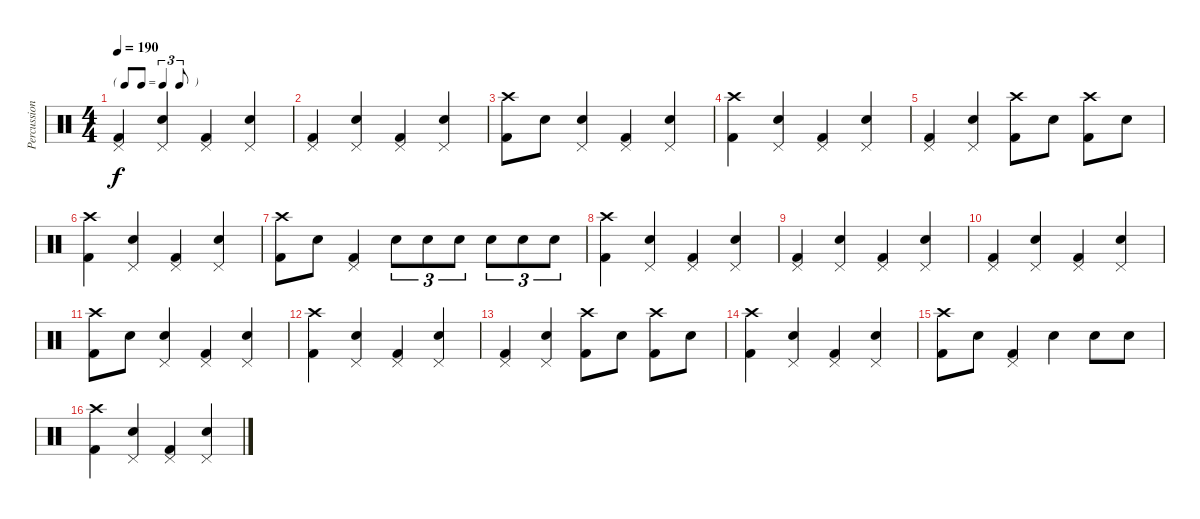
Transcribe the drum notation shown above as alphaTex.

\track ("Percussion" "Percussion") {instrument percussion}
\staff {score}
\articulation defaults
\ts (4 4)
\tf triplet8th
\tempo 190
\clef neutral
\ks c
("Pedal Hi-Hat (hit)" "Kick (hit) 2").4{dy f} ("Pedal Hi-Hat (hit)" "Electric Snare (hit)").4 ("Pedal Hi-Hat (hit)" "Kick (hit) 2").4 ("Pedal Hi-Hat (hit)" "Electric Snare (hit)").4 |
("Pedal Hi-Hat (hit)" "Kick (hit) 2").4 ("Pedal Hi-Hat (hit)" "Electric Snare (hit)").4 ("Pedal Hi-Hat (hit)" "Kick (hit) 2").4 ("Pedal Hi-Hat (hit)" "Electric Snare (hit)").4 |
("Crash high (hit)" "Kick (hit) 2").8 "Electric Snare (hit)".8 ("Pedal Hi-Hat (hit)" "Electric Snare (hit)").4 ("Pedal Hi-Hat (hit)" "Kick (hit) 2").4 ("Pedal Hi-Hat (hit)" "Electric Snare (hit)").4 |
("Crash high (hit)" "Kick (hit) 2").4 ("Pedal Hi-Hat (hit)" "Electric Snare (hit)").4 ("Pedal Hi-Hat (hit)" "Kick (hit) 2").4 ("Pedal Hi-Hat (hit)" "Electric Snare (hit)").4 |
("Pedal Hi-Hat (hit)" "Kick (hit) 2").4 ("Pedal Hi-Hat (hit)" "Electric Snare (hit)").4 ("Crash high (hit)" "Kick (hit) 2").8 "Electric Snare (hit)".8 ("Crash high (hit)" "Kick (hit) 2").8 "Electric Snare (hit)".8 |
("Crash high (hit)" "Kick (hit) 2").4 ("Pedal Hi-Hat (hit)" "Electric Snare (hit)").4 ("Pedal Hi-Hat (hit)" "Kick (hit) 2").4 ("Pedal Hi-Hat (hit)" "Electric Snare (hit)").4 |
("Crash high (hit)" "Kick (hit) 2").8 "Electric Snare (hit)".8 ("Pedal Hi-Hat (hit)" "Kick (hit) 2").4 "Electric Snare (hit)".8{tu (3 2)} "Electric Snare (hit)".8{tu (3 2)} "Electric Snare (hit)".8{tu (3 2)} "Electric Snare (hit)".8{tu (3 2)} "Electric Snare (hit)".8{tu (3 2)} "Electric Snare (hit)".8{tu (3 2)} |
("Crash high (hit)" "Kick (hit) 2").4 ("Pedal Hi-Hat (hit)" "Electric Snare (hit)").4 ("Pedal Hi-Hat (hit)" "Kick (hit) 2").4 ("Pedal Hi-Hat (hit)" "Electric Snare (hit)").4 |
("Pedal Hi-Hat (hit)" "Kick (hit) 2").4 ("Pedal Hi-Hat (hit)" "Electric Snare (hit)").4 ("Pedal Hi-Hat (hit)" "Kick (hit) 2").4 ("Pedal Hi-Hat (hit)" "Electric Snare (hit)").4 |
("Pedal Hi-Hat (hit)" "Kick (hit) 2").4 ("Pedal Hi-Hat (hit)" "Electric Snare (hit)").4 ("Pedal Hi-Hat (hit)" "Kick (hit) 2").4 ("Pedal Hi-Hat (hit)" "Electric Snare (hit)").4 |
("Crash high (hit)" "Kick (hit) 2").8 "Electric Snare (hit)".8 ("Pedal Hi-Hat (hit)" "Electric Snare (hit)").4 ("Pedal Hi-Hat (hit)" "Kick (hit) 2").4 ("Pedal Hi-Hat (hit)" "Electric Snare (hit)").4 |
("Crash high (hit)" "Kick (hit) 2").4 ("Pedal Hi-Hat (hit)" "Electric Snare (hit)").4 ("Pedal Hi-Hat (hit)" "Kick (hit) 2").4 ("Pedal Hi-Hat (hit)" "Electric Snare (hit)").4 |
("Pedal Hi-Hat (hit)" "Kick (hit) 2").4 ("Pedal Hi-Hat (hit)" "Electric Snare (hit)").4 ("Crash high (hit)" "Kick (hit) 2").8 "Electric Snare (hit)".8 ("Crash high (hit)" "Kick (hit) 2").8 "Electric Snare (hit)".8 |
("Crash high (hit)" "Kick (hit) 2").4 ("Pedal Hi-Hat (hit)" "Electric Snare (hit)").4 ("Pedal Hi-Hat (hit)" "Kick (hit) 2").4 ("Pedal Hi-Hat (hit)" "Electric Snare (hit)").4 |
("Crash high (hit)" "Kick (hit) 2").8 "Electric Snare (hit)".8 ("Pedal Hi-Hat (hit)" "Kick (hit) 2").4 "Electric Snare (hit)".4 "Electric Snare (hit)".8 "Electric Snare (hit)".8 |
("Crash high (hit)" "Kick (hit) 2").4 ("Pedal Hi-Hat (hit)" "Electric Snare (hit)").4 ("Pedal Hi-Hat (hit)" "Kick (hit) 2").4 ("Pedal Hi-Hat (hit)" "Electric Snare (hit)").4
